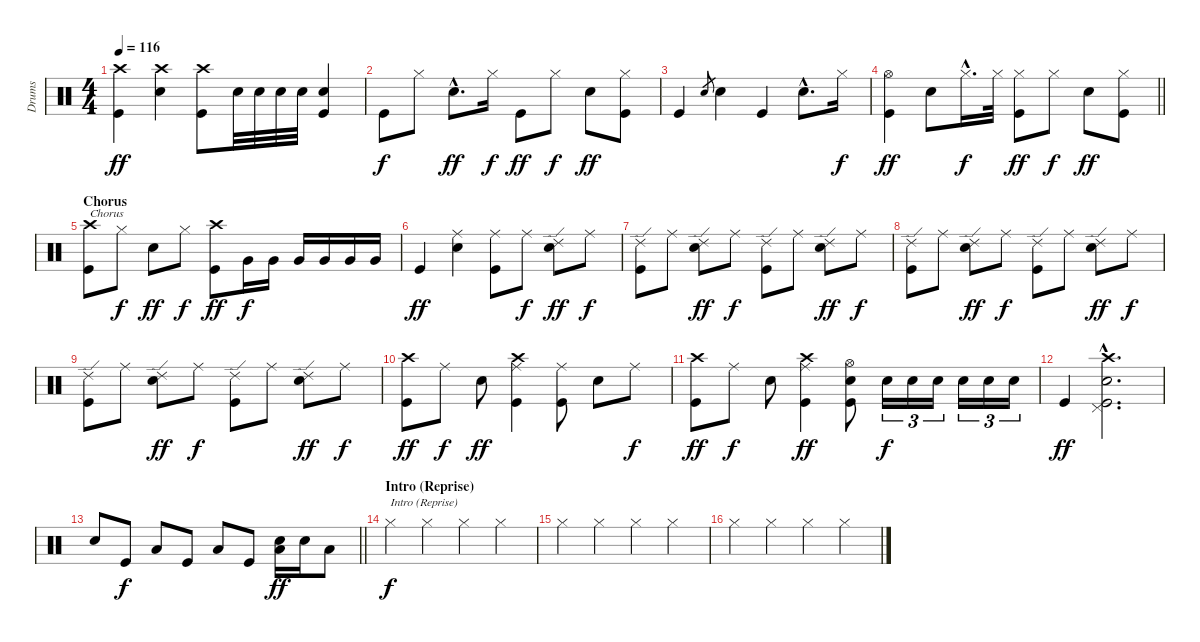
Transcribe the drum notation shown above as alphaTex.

\track ("Drums" "Drums") {instrument percussion}
\staff {score}
\articulation defaults
\ts (4 4)
\tempo 116
\clef neutral
\ks c
("Crash high (hit)" "Kick (hit)").4{dy ff} ("Crash high (hit)" "Snare (hit) 2").4 ("Crash high (hit)" "Kick (hit)").8 "Snare (hit) 2".32 "Snare (hit) 2".32 "Snare (hit) 2".32 "Snare (hit) 2".32 ("Snare (hit) 2" "Kick (hit)").4 |
"Kick (hit)".8{dy f} "Hi-Hat (closed)".8 "Snare (hit) 2"{hac}.8{d dy ff} "Hi-Hat (closed)".16{dy f} "Kick (hit)".8{dy ff} "Hi-Hat (closed)".8{dy f} "Snare (hit) 2".8{dy ff} ("Hi-Hat (closed)" "Kick (hit)").8 |
"Kick (hit)".4 "Snare (hit) 2".8{gr} "Snare (hit) 2".4 "Kick (hit)".4 "Snare (hit) 2"{hac}.8{d} "Hi-Hat (closed)".16{dy f} |
\barLineRight lightlight
("Hi-Hat (open)" "Kick (hit)").4{dy ff} "Snare (hit) 2".8 "Hi-Hat (closed)"{hac}.16{d dy f} "Hi-Hat (closed)".32 ("Hi-Hat (closed)" "Kick (hit)").8{dy ff} "Hi-Hat (closed)".8{dy f} "Snare (hit) 2".8{dy ff} ("Hi-Hat (closed)" "Kick (hit)").8 |
\section ("" "Chorus")
("Crash high (hit)" "Kick (hit)").8{txt "Chorus"} "Hi-Hat (closed)".8{dy f} "Snare (hit) 2".8{dy ff} "Hi-Hat (closed)".8{dy f} ("Crash high (hit)" "Kick (hit)").8{dy ff} "Very Low Tom (hit)".16{dy f} "Very Low Tom (hit)".16 "Very Low Tom (hit)".16 "Very Low Tom (hit)".16 "Very Low Tom (hit)".16 "Very Low Tom (hit)".16 |
"Kick (hit)".4{dy ff} ("Ride (middle)" "Snare (hit) 2").4 ("Ride (middle)" "Kick (hit)").8 "Ride (middle)".8{dy f} ("Ride (edge) 2" "Snare (hit) 2").8{dy ff} "Ride (middle)".8{dy f} |
("Ride (edge) 2" "Kick (hit)").8 "Ride (middle)".8 ("Ride (edge) 2" "Snare (hit) 2").8{dy ff} "Ride (middle)".8{dy f} ("Ride (edge) 2" "Kick (hit)").8 "Ride (middle)".8 ("Ride (edge) 2" "Snare (hit) 2").8{dy ff} "Ride (middle)".8{dy f} |
("Ride (edge) 2" "Kick (hit)").8 "Ride (middle)".8 ("Ride (edge) 2" "Snare (hit) 2").8{dy ff} "Ride (middle)".8{dy f} ("Ride (edge) 2" "Kick (hit)").8 "Ride (middle)".8 ("Ride (edge) 2" "Snare (hit) 2").8{dy ff} "Ride (middle)".8{dy f} |
("Ride (edge) 2" "Kick (hit)").8 "Ride (middle)".8 ("Ride (edge) 2" "Snare (hit) 2").8{dy ff} "Ride (middle)".8{dy f} ("Ride (edge) 2" "Kick (hit)").8 "Ride (middle)".8 ("Ride (edge) 2" "Snare (hit) 2").8{dy ff} "Ride (middle)".8{dy f} |
("Crash high (hit)" "Kick (hit)").8{dy ff} "Ride (middle)".8{dy f} "Snare (hit) 2".8{dy ff} ("Crash high (hit)" "Ride (middle)" "Kick (hit)").4 ("Ride (middle)" "Kick (hit)").8 "Snare (hit) 2".8 "Ride (middle)".8{dy f} |
("Crash high (hit)" "Kick (hit)").8{dy ff} "Ride (middle)".8{dy f} "Snare (hit) 2".8 ("Crash high (hit)" "Ride (middle)" "Kick (hit)").4{dy ff} ("Hi-Hat (open)" "Snare (hit) 2" "Kick (hit)").8 "Snare (hit) 2".16{tu (3 2) dy f} "Snare (hit) 2".16{tu (3 2)} "Snare (hit) 2".16{tu (3 2)} "Snare (hit) 2".16{tu (3 2)} "Snare (hit) 2".16{tu (3 2)} "Snare (hit) 2".16{tu (3 2)} |
"Kick (hit)".4{dy ff} ("Crash high (hit)" "Pedal Hi-Hat (hit)"{hac} "Snare (hit) 2"{hac} "Kick (hit)").2{d} |
\barLineRight lightlight "Snare (hit) 2".8 "Kick (hit)".8{dy f} "Low Tom (hit)".8 "Kick (hit)".8 "Low Tom (hit)".8 "Kick (hit)".8
("Snare (hit) 2" "Low Tom (hit)").16{dy ff} "Snare (hit) 2".16 "Low Tom (hit)".8 |
\section ("" "Intro (Reprise)")
"Hi-Hat (closed)".4{txt "Intro (Reprise)" dy f} "Hi-Hat (closed)".4 "Hi-Hat (closed)".4 "Hi-Hat (closed)".4 |
"Hi-Hat (closed)".4 "Hi-Hat (closed)".4 "Hi-Hat (closed)".4 "Hi-Hat (closed)".4 |
"Hi-Hat (closed)".4 "Hi-Hat (closed)".4 "Hi-Hat (closed)".4 "Hi-Hat (closed)".4
